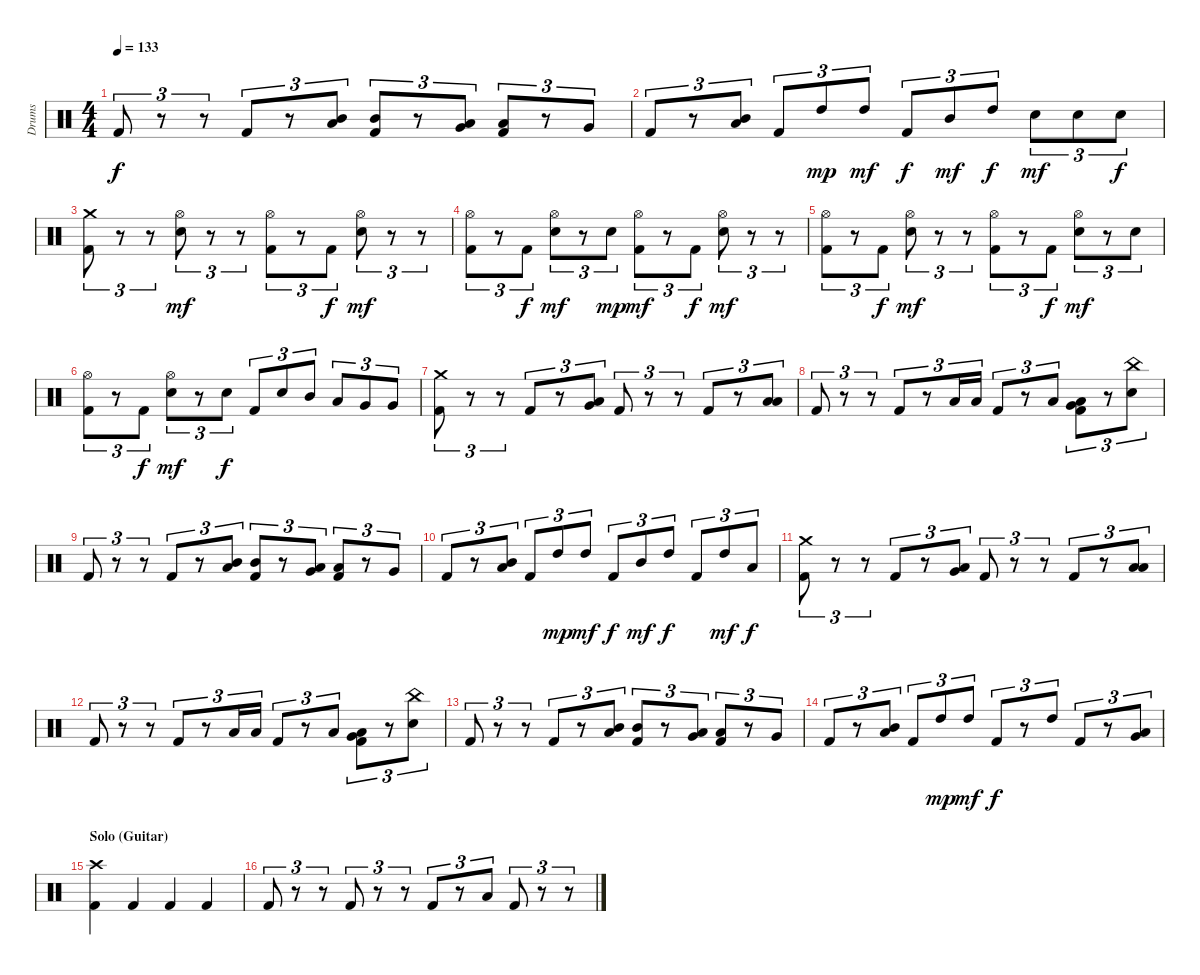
\track ("Drums" "Drums") {instrument percussion}
\staff {score}
\articulation defaults
\ts (4 4)
\tempo 133
\clef neutral
\ks c "Kick (hit) 2".8{tu (3 2) dy f}
r.8{tu (3 2)} r.8{tu (3 2)} "Kick (hit) 2".8{tu (3 2)} r.8{tu (3 2)} ("Low Tom (hit)" "Mid Tom (hit)").8{tu (3 2)} ("Mid Tom (hit)" "Kick (hit) 2").8{tu (3 2)} r.8{tu (3 2)} ("Low Tom (hit)" "Very Low Tom (hit)").8{tu (3 2)} ("Low Tom (hit)" "Kick (hit) 2").8{tu (3 2)} r.8{tu (3 2)} "Very Low Tom (hit)".8{tu (3 2)} |
"Kick (hit) 2".8{tu (3 2)} r.8{tu (3 2)} ("Mid Tom (hit)" "Low Tom (hit)").8{tu (3 2)} "Kick (hit) 2".8{tu (3 2)} "High Tom (hit)".8{tu (3 2) dy mp} "High Tom (hit)".8{tu (3 2) dy mf} "Kick (hit) 2".8{tu (3 2) dy f} "Mid Tom (hit)".8{tu (3 2) dy mf} "High Tom (hit)".8{tu (3 2) dy f} "Electric Snare (hit)".8{tu (3 2) dy mf} "Electric Snare (hit)".8{tu (3 2)} "Electric Snare (hit)".8{tu (3 2) dy f} |
("Crash medium (hit)" "Kick (hit) 2").8{tu (3 2)} r.8{tu (3 2)} r.8{tu (3 2)} ("Hi-Hat (open)" "Electric Snare (hit)").8{tu (3 2) dy mf} r.8{tu (3 2)} r.8{tu (3 2)} ("Hi-Hat (open)" "Kick (hit) 2").8{tu (3 2)} r.8{tu (3 2)} "Kick (hit) 2".8{tu (3 2) dy f} ("Hi-Hat (open)" "Electric Snare (hit)").8{tu (3 2) dy mf} r.8{tu (3 2)} r.8{tu (3 2)} |
("Hi-Hat (open)" "Kick (hit) 2").8{tu (3 2)} r.8{tu (3 2)} "Kick (hit) 2".8{tu (3 2) dy f} ("Hi-Hat (open)" "Electric Snare (hit)").8{tu (3 2) dy mf} r.8{tu (3 2)} "Electric Snare (hit)".8{tu (3 2) dy mp} ("Hi-Hat (open)" "Kick (hit) 2").8{tu (3 2) dy mf} r.8{tu (3 2)} "Kick (hit) 2".8{tu (3 2) dy f} ("Hi-Hat (open)" "Electric Snare (hit)").8{tu (3 2) dy mf} r.8{tu (3 2)} r.8{tu (3 2)} |
("Hi-Hat (open)" "Kick (hit) 2").8{tu (3 2)} r.8{tu (3 2)} "Kick (hit) 2".8{tu (3 2) dy f} ("Hi-Hat (open)" "Electric Snare (hit)").8{tu (3 2) dy mf} r.8{tu (3 2)} r.8{tu (3 2)} ("Hi-Hat (open)" "Kick (hit) 2").8{tu (3 2)} r.8{tu (3 2)} "Kick (hit) 2".8{tu (3 2) dy f} ("Hi-Hat (open)" "Electric Snare (hit)").8{tu (3 2) dy mf} r.8{tu (3 2)} "Electric Snare (hit)".8{tu (3 2)} |
("Hi-Hat (open)" "Kick (hit) 2").8{tu (3 2)} r.8{tu (3 2)} "Kick (hit) 2".8{tu (3 2) dy f} ("Hi-Hat (open)" "Electric Snare (hit)").8{tu (3 2) dy mf} r.8{tu (3 2)} "Electric Snare (hit)".8{tu (3 2) dy f} "Kick (hit) 2".8{tu (3 2)} "Electric Snare (hit)".8{tu (3 2)} "Mid Tom (hit)".8{tu (3 2)} "Low Tom (hit)".8{tu (3 2)} "Very Low Tom (hit)".8{tu (3 2)} "Very Low Tom (hit)".8{tu (3 2)} |
("Crash medium (hit)" "Kick (hit) 2").8{tu (3 2)} r.8{tu (3 2)} r.8{tu (3 2)} "Kick (hit) 2".8{tu (3 2)} r.8{tu (3 2)} ("Low Tom (hit)" "Very Low Tom (hit)").8{tu (3 2)} "Kick (hit) 2".8{tu (3 2)} r.8{tu (3 2)} r.8{tu (3 2)} "Kick (hit) 2".8{tu (3 2)} r.8{tu (3 2)} ("Low Tom (hit)" "Low Floor Tom (hit)").8{tu (3 2)} |
"Kick (hit) 2".8{tu (3 2)} r.8{tu (3 2)} r.8{tu (3 2)} "Kick (hit) 2".8{tu (3 2)} r.8{tu (3 2)} "Low Tom (hit)".16{tu (3 2)} "Low Tom (hit)".16{tu (3 2)} "Kick (hit) 2".8{tu (3 2)} r.8{tu (3 2)} "Low Floor Tom (hit)".8{tu (3 2)} ("Low Floor Tom (hit)" "Very Low Tom (hit)" "Kick (hit) 2").8{tu (3 2)} r.8{tu (3 2)} ("China (hit)" "Electric Snare (hit)").8{tu (3 2)} |
"Kick (hit) 2".8{tu (3 2)} r.8{tu (3 2)} r.8{tu (3 2)} "Kick (hit) 2".8{tu (3 2)} r.8{tu (3 2)} ("Low Tom (hit)" "Mid Tom (hit)").8{tu (3 2)} ("Mid Tom (hit)" "Kick (hit) 2").8{tu (3 2)} r.8{tu (3 2)} ("Low Tom (hit)" "Very Low Tom (hit)").8{tu (3 2)} ("Low Tom (hit)" "Kick (hit) 2").8{tu (3 2)} r.8{tu (3 2)} "Very Low Tom (hit)".8{tu (3 2)} |
"Kick (hit) 2".8{tu (3 2)} r.8{tu (3 2)} ("Mid Tom (hit)" "Low Tom (hit)").8{tu (3 2)} "Kick (hit) 2".8{tu (3 2)} "High Tom (hit)".8{tu (3 2) dy mp} "High Tom (hit)".8{tu (3 2) dy mf} "Kick (hit) 2".8{tu (3 2) dy f} "Mid Tom (hit)".8{tu (3 2) dy mf} "High Tom (hit)".8{tu (3 2) dy f} "Kick (hit) 2".8{tu (3 2)} "High Tom (hit)".8{tu (3 2) dy mf} "Low Tom (hit)".8{tu (3 2) dy f} |
("Crash medium (hit)" "Kick (hit) 2").8{tu (3 2)} r.8{tu (3 2)} r.8{tu (3 2)} "Kick (hit) 2".8{tu (3 2)} r.8{tu (3 2)} ("Low Tom (hit)" "Very Low Tom (hit)").8{tu (3 2)} "Kick (hit) 2".8{tu (3 2)} r.8{tu (3 2)} r.8{tu (3 2)} "Kick (hit) 2".8{tu (3 2)} r.8{tu (3 2)} ("Low Tom (hit)" "Low Floor Tom (hit)").8{tu (3 2)} |
"Kick (hit) 2".8{tu (3 2)} r.8{tu (3 2)} r.8{tu (3 2)} "Kick (hit) 2".8{tu (3 2)} r.8{tu (3 2)} "Low Tom (hit)".16{tu (3 2)} "Low Tom (hit)".16{tu (3 2)} "Kick (hit) 2".8{tu (3 2)} r.8{tu (3 2)} "Low Floor Tom (hit)".8{tu (3 2)} ("Low Floor Tom (hit)" "Very Low Tom (hit)" "Kick (hit) 2").8{tu (3 2)} r.8{tu (3 2)} ("China (hit)" "Electric Snare (hit)").8{tu (3 2)} |
"Kick (hit) 2".8{tu (3 2)} r.8{tu (3 2)} r.8{tu (3 2)} "Kick (hit) 2".8{tu (3 2)} r.8{tu (3 2)} ("Low Tom (hit)" "Mid Tom (hit)").8{tu (3 2)} ("Mid Tom (hit)" "Kick (hit) 2").8{tu (3 2)} r.8{tu (3 2)} ("Low Tom (hit)" "Very Low Tom (hit)").8{tu (3 2)} ("Low Tom (hit)" "Kick (hit) 2").8{tu (3 2)} r.8{tu (3 2)} "Very Low Tom (hit)".8{tu (3 2)} |
"Kick (hit) 2".8{tu (3 2)} r.8{tu (3 2)} ("Mid Tom (hit)" "Low Tom (hit)").8{tu (3 2)} "Kick (hit) 2".8{tu (3 2)} "High Tom (hit)".8{tu (3 2) dy mp} "High Tom (hit)".8{tu (3 2) dy mf} "Kick (hit) 2".8{tu (3 2) dy f} r.8{tu (3 2)} "High Tom (hit)".8{tu (3 2)} "Kick (hit) 2".8{tu (3 2)} r.8{tu (3 2)} ("Very Low Tom (hit)" "Low Tom (hit)").8{tu (3 2)} |
\section ("" "Solo (Guitar)")
("Crash high (hit)" "Kick (hit) 2").4 "Kick (hit) 2".4 "Kick (hit) 2".4 "Kick (hit) 2".4 |
"Kick (hit) 2".8{tu (3 2)} r.8{tu (3 2)} r.8{tu (3 2)} "Kick (hit) 2".8{tu (3 2)} r.8{tu (3 2)} r.8{tu (3 2)} "Kick (hit) 2".8{tu (3 2)} r.8{tu (3 2)} "Low Tom (hit)".8{tu (3 2)} "Kick (hit) 2".8{tu (3 2)} r.8{tu (3 2)} r.8{tu (3 2)}
